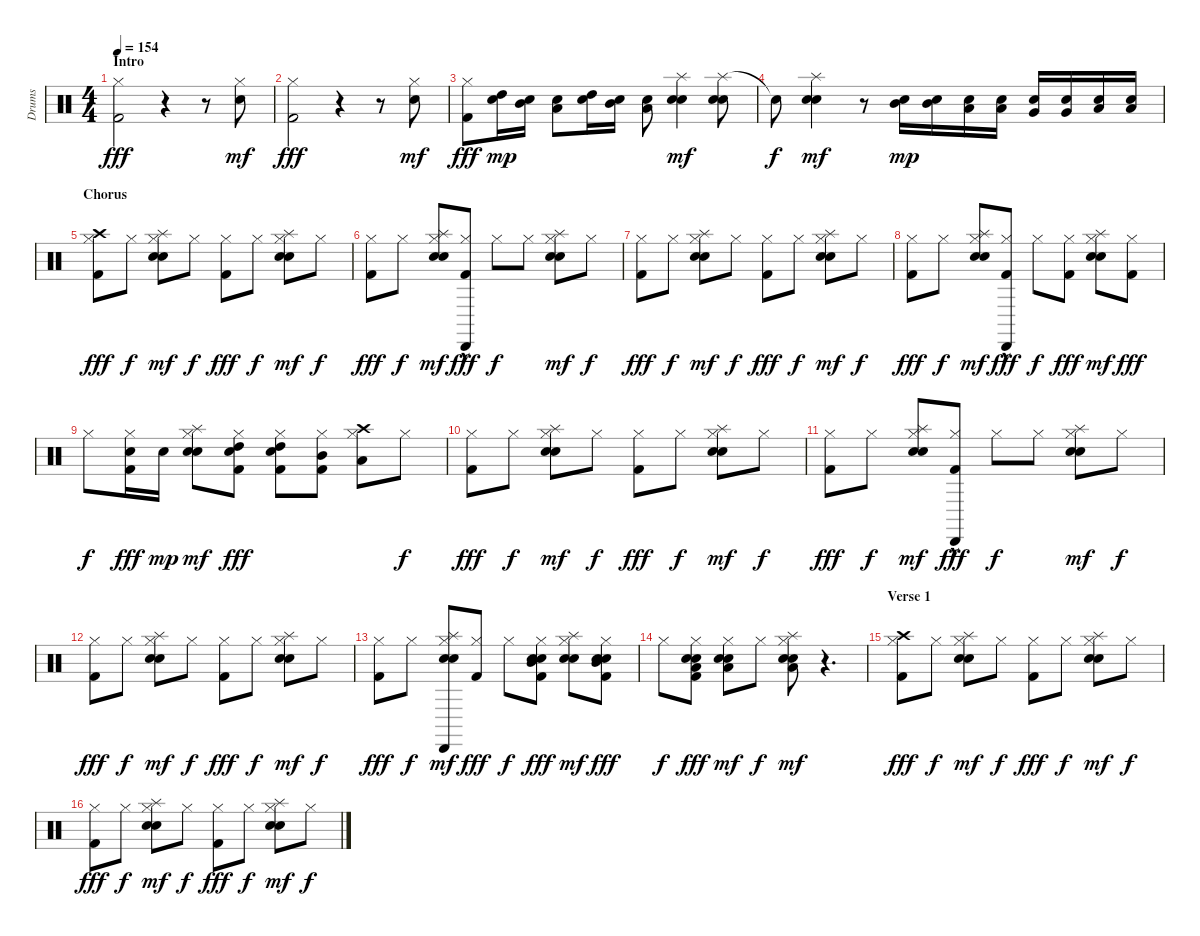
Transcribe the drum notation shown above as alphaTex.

\track ("Drums" "Drums") {instrument percussion}
\staff {score}
\articulation defaults
\ts (4 4)
\section ("" "Intro")
\tempo 154
\clef neutral
\ks c
("Hi-Hat (closed)" "Kick (hit) 2").2{dy fff} r.4 r.8 ("Hi-Hat (closed)" "Snare (hit) 2").8{dy mf} |
("Hi-Hat (closed)" "Kick (hit) 2").2{dy fff} r.4 r.8 ("Hi-Hat (closed)" "Snare (hit) 2").8{dy mf} |
("Hi-Hat (closed)" "Kick (hit) 2").8{dy fff} ("High Tom (hit)" "Snare (hit) 2").16{dy mp} ("Mid Tom (hit)" "Snare (hit) 2").16 ("Low Tom (hit)" "Snare (hit) 2").8 ("High Tom (hit)" "Snare (hit) 2").16 ("Mid Tom (hit)" "Snare (hit) 2").16 ("Low Tom (hit)" "Snare (hit) 2").8 ("Splash (hit)" "Electric Snare (hit)" "Snare (hit) 2").4{dy mf} ("Splash (hit)" "Electric Snare (hit)" "Snare (hit) 2").8 |
"Snare (hit)"{t}.8{dy f} ("Splash (hit)" "Electric Snare (hit)" "Snare (hit) 2").4{dy mf} r.8 ("Mid Tom (hit)" "Snare (hit) 2").16{dy mp} ("Mid Tom (hit)" "Snare (hit) 2").16 ("Low Tom (hit)" "Snare (hit) 2").16 ("Low Tom (hit)" "Snare (hit) 2").16 ("Very Low Tom (hit)" "Snare (hit) 2").16 ("Very Low Tom (hit)" "Snare (hit) 2").16 ("Low Floor Tom (hit)" "Snare (hit) 2").16 ("Low Floor Tom (hit)" "Snare (hit) 2").16 |
\section ("" "Chorus")
("Crash high (hit)" "Hi-Hat (closed)" "Kick (hit) 2").8{dy fff} "Hi-Hat (closed)".8{dy f} ("Splash (hit)" "Hi-Hat (closed)" "Electric Snare (hit)" "Snare (hit) 2").8{dy mf} "Hi-Hat (closed)".8{dy f} ("Hi-Hat (closed)" "Kick (hit) 2").8{dy fff} "Hi-Hat (closed)".8{dy f} ("Splash (hit)" "Hi-Hat (closed)" "Electric Snare (hit)" "Snare (hit) 2").8{dy mf} "Hi-Hat (closed)".8{dy f} |
("Hi-Hat (closed)" "Kick (hit) 2").8{dy fff} "Hi-Hat (closed)".8{dy f} ("Splash (hit)" "Hi-Hat (closed)" "Electric Snare (hit)" "Snare (hit) 2").8{dy mf} ("Hi-Hat (closed)" "Cabasa (hit)"{hac} "Kick (hit) 2"{hac}).8{dy fff} "Hi-Hat (closed)".8{dy f} "Hi-Hat (closed)".8 ("Splash (hit)" "Hi-Hat (closed)" "Electric Snare (hit)" "Snare (hit) 2").8{dy mf} "Hi-Hat (closed)".8{dy f} |
("Hi-Hat (closed)" "Kick (hit) 2").8{dy fff} "Hi-Hat (closed)".8{dy f} ("Splash (hit)" "Hi-Hat (closed)" "Electric Snare (hit)" "Snare (hit) 2").8{dy mf} "Hi-Hat (closed)".8{dy f} ("Hi-Hat (closed)" "Kick (hit) 2").8{dy fff} "Hi-Hat (closed)".8{dy f} ("Splash (hit)" "Hi-Hat (closed)" "Electric Snare (hit)" "Snare (hit) 2").8{dy mf} "Hi-Hat (closed)".8{dy f} |
("Hi-Hat (closed)" "Kick (hit) 2").8{dy fff} "Hi-Hat (closed)".8{dy f} ("Splash (hit)" "Hi-Hat (closed)" "Electric Snare (hit)" "Snare (hit) 2").8{dy mf} ("Hi-Hat (closed)" "Cabasa (hit)"{hac} "Kick (hit) 2").8{dy fff} "Hi-Hat (closed)".8{dy f} ("Hi-Hat (closed)" "Kick (hit) 2").8{dy fff} ("Splash (hit)" "Hi-Hat (closed)" "Electric Snare (hit)" "Snare (hit) 2").8{dy mf} ("Hi-Hat (closed)" "Kick (hit) 2").8{dy fff} |
"Hi-Hat (closed)".8{dy f} ("Hi-Hat (closed)" "Snare (hit) 2" "Kick (hit) 2").16{dy fff} "Snare (hit) 2".16{dy mp} ("Splash (hit)" "Hi-Hat (closed)" "Electric Snare (hit)" "Snare (hit) 2").8{dy mf} ("Hi-Hat (closed)" "High Tom (hit)" "Snare (hit) 2" "Kick (hit) 2").8{dy fff} ("Hi-Hat (closed)" "High Tom (hit)" "Snare (hit) 2" "Kick (hit) 2").8 ("Hi-Hat (closed)" "Mid Tom (hit)" "Kick (hit) 2").8 ("Crash high (hit)" "Hi-Hat (closed)" "Low Tom (hit)").8 "Hi-Hat (closed)".8{dy f} |
("Hi-Hat (closed)" "Kick (hit) 2").8{dy fff} "Hi-Hat (closed)".8{dy f} ("Splash (hit)" "Hi-Hat (closed)" "Electric Snare (hit)" "Snare (hit) 2").8{dy mf} "Hi-Hat (closed)".8{dy f} ("Hi-Hat (closed)" "Kick (hit) 2").8{dy fff} "Hi-Hat (closed)".8{dy f} ("Splash (hit)" "Hi-Hat (closed)" "Electric Snare (hit)" "Snare (hit) 2").8{dy mf} "Hi-Hat (closed)".8{dy f} |
("Hi-Hat (closed)" "Kick (hit) 2").8{dy fff} "Hi-Hat (closed)".8{dy f} ("Splash (hit)" "Hi-Hat (closed)" "Electric Snare (hit)" "Snare (hit) 2").8{dy mf} ("Hi-Hat (closed)" "Cabasa (hit)"{hac} "Kick (hit) 2"{hac}).8{dy fff} "Hi-Hat (closed)".8{dy f} "Hi-Hat (closed)".8 ("Splash (hit)" "Hi-Hat (closed)" "Electric Snare (hit)" "Snare (hit) 2").8{dy mf} "Hi-Hat (closed)".8{dy f} |
("Hi-Hat (closed)" "Kick (hit) 2").8{dy fff} "Hi-Hat (closed)".8{dy f} ("Splash (hit)" "Hi-Hat (closed)" "Electric Snare (hit)" "Snare (hit) 2").8{dy mf} "Hi-Hat (closed)".8{dy f} ("Hi-Hat (closed)" "Kick (hit) 2").8{dy fff} "Hi-Hat (closed)".8{dy f} ("Splash (hit)" "Hi-Hat (closed)" "Electric Snare (hit)" "Snare (hit) 2").8{dy mf} "Hi-Hat (closed)".8{dy f} |
("Hi-Hat (closed)" "Kick (hit) 2").8{dy fff} "Hi-Hat (closed)".8{dy f} ("Splash (hit)" "Hi-Hat (closed)" "Cabasa (hit)" "Electric Snare (hit)" "Snare (hit) 2").8{dy mf} ("Hi-Hat (closed)" "Kick (hit) 2").8{dy fff} "Hi-Hat (closed)".8{dy f} ("Hi-Hat (closed)" "Hand Clap (hit)" "Mid Tom (hit)" "Snare (hit) 2" "Kick (hit) 2").8{dy fff} ("Splash (hit)" "Hi-Hat (closed)" "Electric Snare (hit)" "Snare (hit) 2").8{dy mf} ("Hi-Hat (closed)" "Hand Clap (hit)" "Mid Tom (hit)" "Snare (hit) 2" "Kick (hit) 2").8{dy fff} |
"Hi-Hat (closed)".8{dy f} ("Hi-Hat (closed)" "Hand Clap (hit)" "Low Tom (hit)" "Snare (hit) 2" "Kick (hit) 2").8{dy fff} ("Hi-Hat (closed)" "Hand Clap (hit)" "Low Tom (hit)" "Snare (hit) 2").8{dy mf} "Hi-Hat (closed)".8{dy f} ("Splash (hit)" "Hi-Hat (closed)" "Hand Clap (hit)" "Low Tom (hit)" "Snare (hit) 2").8{dy mf} r.4{d} |
\section ("" "Verse 1")
("Crash high (hit)" "Hi-Hat (closed)" "Kick (hit) 2").8{dy fff} "Hi-Hat (closed)".8{dy f} ("Splash (hit)" "Hi-Hat (closed)" "Electric Snare (hit)" "Snare (hit) 2").8{dy mf} "Hi-Hat (closed)".8{dy f} ("Hi-Hat (closed)" "Kick (hit) 2").8{dy fff} "Hi-Hat (closed)".8{dy f} ("Splash (hit)" "Hi-Hat (closed)" "Electric Snare (hit)" "Snare (hit) 2").8{dy mf} "Hi-Hat (closed)".8{dy f} |
("Hi-Hat (closed)" "Kick (hit) 2").8{dy fff} "Hi-Hat (closed)".8{dy f} ("Splash (hit)" "Hi-Hat (closed)" "Electric Snare (hit)" "Snare (hit) 2").8{dy mf} "Hi-Hat (closed)".8{dy f} ("Hi-Hat (closed)" "Kick (hit) 2").8{dy fff} "Hi-Hat (closed)".8{dy f} ("Splash (hit)" "Hi-Hat (closed)" "Electric Snare (hit)" "Snare (hit) 2").8{dy mf} "Hi-Hat (closed)".8{dy f}
